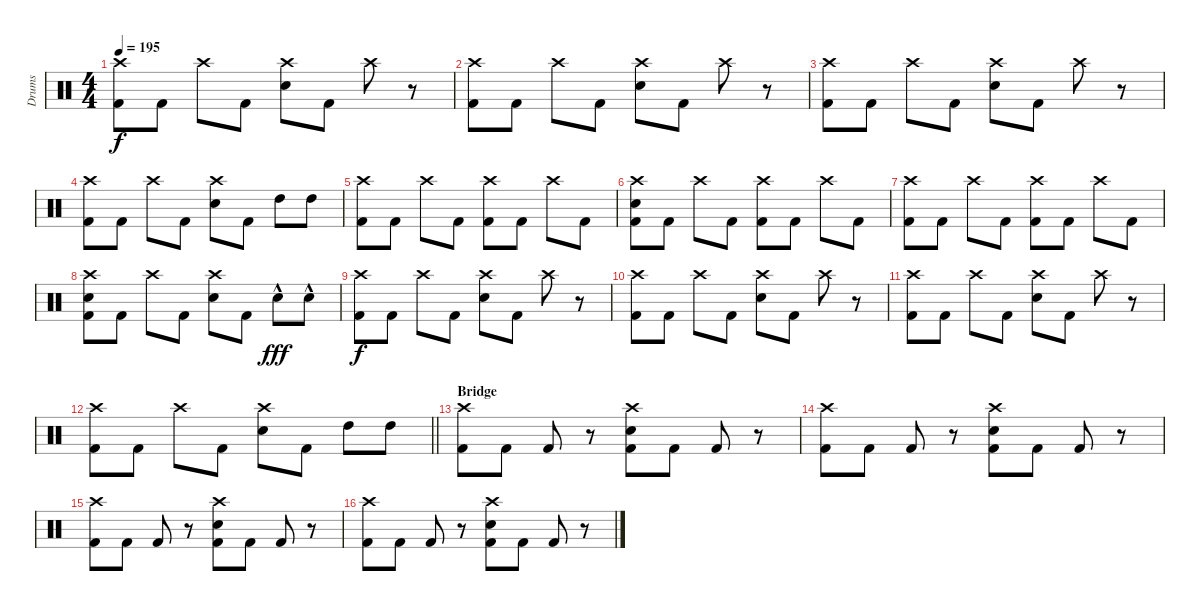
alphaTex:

\track ("Drums" "Drums") {instrument percussion}
\staff {score}
\articulation defaults
\ts (4 4)
\tempo 195
\clef neutral
\ks c
("Crash high (hit)" "Kick (hit) 2").8{dy f} "Kick (hit) 2".8 "Crash high (hit)".8 "Kick (hit) 2".8 ("Crash high (hit)" "Electric Snare (hit)").8 "Kick (hit) 2".8 "Crash high (hit)".8 r.8 |
("Crash high (hit)" "Kick (hit) 2").8 "Kick (hit) 2".8 "Crash high (hit)".8 "Kick (hit) 2".8 ("Crash high (hit)" "Electric Snare (hit)").8 "Kick (hit) 2".8 "Crash high (hit)".8 r.8 |
("Crash high (hit)" "Kick (hit) 2").8 "Kick (hit) 2".8 "Crash high (hit)".8 "Kick (hit) 2".8 ("Crash high (hit)" "Electric Snare (hit)").8 "Kick (hit) 2".8 "Crash high (hit)".8 r.8 |
("Crash high (hit)" "Kick (hit) 2").8 "Kick (hit) 2".8 "Crash high (hit)".8 "Kick (hit) 2".8 ("Crash high (hit)" "Electric Snare (hit)").8 "Kick (hit) 2".8 "High Tom (hit)".8 "High Tom (hit)".8 |
("Crash high (hit)" "Kick (hit) 2").8 "Kick (hit) 2".8 "Crash high (hit)".8 "Kick (hit) 2".8 ("Crash high (hit)" "Kick (hit) 2").8 "Kick (hit) 2".8 "Crash high (hit)".8 "Kick (hit) 2".8 |
("Crash high (hit)" "Electric Snare (hit)" "Kick (hit) 2").8 "Kick (hit) 2".8 "Crash high (hit)".8 "Kick (hit) 2".8 ("Crash high (hit)" "Kick (hit) 2").8 "Kick (hit) 2".8 "Crash high (hit)".8 "Kick (hit) 2".8 |
("Crash high (hit)" "Kick (hit) 2").8 "Kick (hit) 2".8 "Crash high (hit)".8 "Kick (hit) 2".8 ("Crash high (hit)" "Kick (hit) 2").8 "Kick (hit) 2".8 "Crash high (hit)".8 "Kick (hit) 2".8 |
("Crash high (hit)" "Electric Snare (hit)" "Kick (hit) 2").8 "Kick (hit) 2".8 "Crash high (hit)".8 "Kick (hit) 2".8 ("Crash high (hit)" "Electric Snare (hit)").8 "Kick (hit) 2".8 "Electric Snare (hit)"{hac}.8{dy fff} "Electric Snare (hit)"{hac}.8 |
("Crash high (hit)" "Kick (hit) 2").8{dy f} "Kick (hit) 2".8 "Crash high (hit)".8 "Kick (hit) 2".8 ("Crash high (hit)" "Electric Snare (hit)").8 "Kick (hit) 2".8 "Crash high (hit)".8 r.8 |
("Crash high (hit)" "Kick (hit) 2").8 "Kick (hit) 2".8 "Crash high (hit)".8 "Kick (hit) 2".8 ("Crash high (hit)" "Electric Snare (hit)").8 "Kick (hit) 2".8 "Crash high (hit)".8 r.8 |
("Crash high (hit)" "Kick (hit) 2").8 "Kick (hit) 2".8 "Crash high (hit)".8 "Kick (hit) 2".8 ("Crash high (hit)" "Electric Snare (hit)").8 "Kick (hit) 2".8 "Crash high (hit)".8 r.8 |
\barLineRight lightlight
("Crash high (hit)" "Kick (hit) 2").8 "Kick (hit) 2".8 "Crash high (hit)".8 "Kick (hit) 2".8 ("Crash high (hit)" "Electric Snare (hit)").8 "Kick (hit) 2".8 "High Tom (hit)".8 "High Tom (hit)".8 |
\section ("" "Bridge")
("Crash high (hit)" "Kick (hit) 2").8 "Kick (hit) 2".8 "Kick (hit) 2".8 r.8 ("Crash high (hit)" "Electric Snare (hit)" "Kick (hit) 2").8 "Kick (hit) 2".8 "Kick (hit) 2".8 r.8 |
("Crash high (hit)" "Kick (hit) 2").8 "Kick (hit) 2".8 "Kick (hit) 2".8 r.8 ("Crash high (hit)" "Electric Snare (hit)" "Kick (hit) 2").8 "Kick (hit) 2".8 "Kick (hit) 2".8 r.8 |
("Crash high (hit)" "Kick (hit) 2").8 "Kick (hit) 2".8 "Kick (hit) 2".8 r.8 ("Crash high (hit)" "Electric Snare (hit)" "Kick (hit) 2").8 "Kick (hit) 2".8 "Kick (hit) 2".8 r.8 |
("Crash high (hit)" "Kick (hit) 2").8 "Kick (hit) 2".8 "Kick (hit) 2".8 r.8 ("Crash high (hit)" "Electric Snare (hit)" "Kick (hit) 2").8 "Kick (hit) 2".8 "Kick (hit) 2".8 r.8
